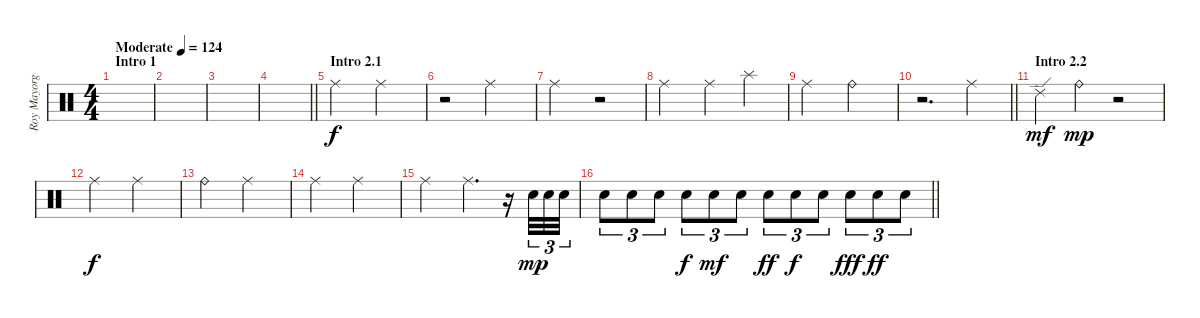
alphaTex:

\track ("Roy Mayorga" "Roy Mayorg") {instrument percussion}
\staff {score}
\articulation defaults
\ts (4 4)
\section ("" "Intro 1")
\tempo (124 "Moderate")
\clef neutral
\ks c
|
|
|
\barLineRight lightlight
|
\section ("" "Intro 2.1")
"Ride (middle)".2 "Ride (middle)".2 |
r.2 "Ride (middle)".2 |
"Ride (middle)".2 r.2 |
"Ride (middle)".2 "Ride (middle)".4 "Splash (hit)".4 |
"Ride (middle)".2 "Ride (bell)".2 |
\barLineRight lightlight
r.2{d} "Ride (middle)".4 |
\section ("" "Intro 2.2")
"Ride (edge) 2".4{dy mf} "Ride (bell)".4{dy mp} r.2 |
"Ride (middle)".2{dy f} "Ride (middle)".2 |
"Ride (bell)".2 "Ride (middle)".2 |
"Ride (middle)".2 "Ride (middle)".2 |
"Ride (middle)".2 "Ride (middle)".4{d} r.16 "Electric Snare (hit)".32{tu (3 2) dy mp} "Electric Snare (hit)".32{tu (3 2)} "Electric Snare (hit)".32{tu (3 2)} |
\barLineRight lightlight "Electric Snare (hit)".8{tu (3 2)} "Electric Snare (hit)".8{tu (3 2)} "Electric Snare (hit)".8{tu (3 2)} "Electric Snare (hit)".8{tu (3 2) dy f} "Electric Snare (hit)".8{tu (3 2) dy mf} "Electric Snare (hit)".8{tu (3 2)} "Electric Snare (hit)".8{tu (3 2) dy ff} "Electric Snare (hit)".8{tu (3 2) dy f} "Electric Snare (hit)".8{tu (3 2)} "Electric Snare (hit)".8{tu (3 2) dy fff} "Electric Snare (hit)".8{tu (3 2) dy ff} "Electric Snare (hit)".8{tu (3 2)}
